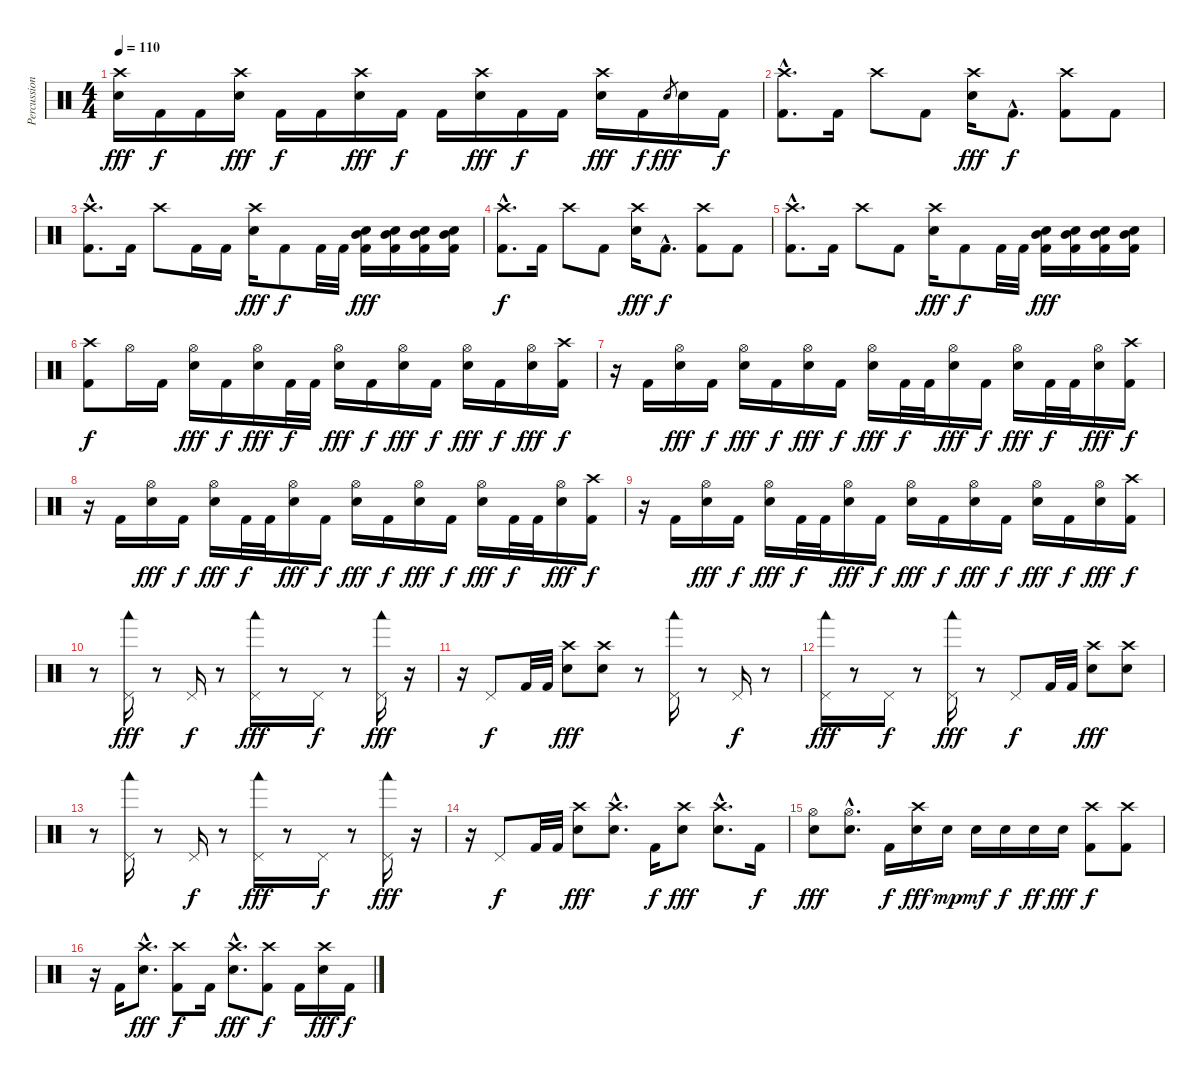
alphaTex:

\track ("Percussions" "Percussion") {instrument percussion}
\staff {score}
\articulation defaults
\ts (4 4)
\tempo 110
\clef neutral
\ks c
("Crash high (hit)" "Snare (hit) 2").16{dy fff} "Kick (hit) 2".16{dy f} "Kick (hit) 2".16 ("Crash high (hit)" "Snare (hit) 2").16{dy fff} "Kick (hit) 2".16{dy f} "Kick (hit) 2".16 ("Crash high (hit)" "Snare (hit) 2").16{dy fff} "Kick (hit) 2".16{dy f} "Kick (hit) 2".16 ("Crash high (hit)" "Snare (hit) 2").16{dy fff} "Kick (hit) 2".16{dy f} "Kick (hit) 2".16 ("Crash high (hit)" "Snare (hit) 2").16{dy fff} "Kick (hit) 2".16{dy f} "Snare (hit) 2".8{gr dy fff} "Snare (hit) 2".16 "Kick (hit) 2".16{dy f} |
("Crash high (hit)"{hac} "Kick (hit) 2"{hac}).8{d} "Kick (hit) 2".16 "Crash high (hit)".8 "Kick (hit) 2".8 ("Crash high (hit)" "Snare (hit) 2").16{dy fff} "Kick (hit) 2"{hac}.8{d dy f} ("Crash high (hit)" "Kick (hit) 2").8 "Kick (hit) 2".8 |
("Crash high (hit)"{hac} "Kick (hit) 2"{hac}).8{d} "Kick (hit) 2".16 "Crash high (hit)".8 "Kick (hit) 2".16 "Kick (hit) 2".16 ("Crash high (hit)" "Snare (hit) 2").16{dy fff} "Kick (hit) 2".8{dy f} "Kick (hit) 2".32 "Kick (hit) 2".32 ("Snare (hit) 2" "Mid Tom (hit)" "Kick (hit) 2").16{dy fff} ("Snare (hit) 2" "Mid Tom (hit)" "Kick (hit) 2").16 ("Snare (hit) 2" "Mid Tom (hit)" "Kick (hit) 2").16 ("Snare (hit) 2" "Mid Tom (hit)" "Kick (hit) 2").16 |
("Crash high (hit)"{hac} "Kick (hit) 2"{hac}).8{d dy f} "Kick (hit) 2".16 "Crash high (hit)".8 "Kick (hit) 2".8 ("Crash high (hit)" "Snare (hit) 2").16{dy fff} "Kick (hit) 2"{hac}.8{d dy f} ("Crash high (hit)" "Kick (hit) 2").8 "Kick (hit) 2".8 |
("Crash high (hit)"{hac} "Kick (hit) 2"{hac}).8{d} "Kick (hit) 2".16 "Crash high (hit)".8 "Kick (hit) 2".8 ("Crash high (hit)" "Snare (hit) 2").16{dy fff} "Kick (hit) 2".8{dy f} "Kick (hit) 2".32 "Kick (hit) 2".32 ("Snare (hit) 2" "Mid Tom (hit)" "Kick (hit) 2").16{dy fff} ("Snare (hit) 2" "Mid Tom (hit)" "Kick (hit) 2").16 ("Snare (hit) 2" "Mid Tom (hit)" "Kick (hit) 2").16 ("Snare (hit) 2" "Mid Tom (hit)" "Kick (hit) 2").16 |
("Crash high (hit)" "Kick (hit) 2").8{dy f} "Hi-Hat (open)".16 "Kick (hit) 2".16 ("Hi-Hat (open)" "Snare (hit) 2").16{dy fff} "Kick (hit) 2".16{dy f} ("Hi-Hat (open)" "Snare (hit) 2").16{dy fff} "Kick (hit) 2".32{dy f} "Kick (hit) 2".32 ("Hi-Hat (open)" "Snare (hit) 2").16{dy fff} "Kick (hit) 2".16{dy f} ("Hi-Hat (open)" "Snare (hit) 2").16{dy fff} "Kick (hit) 2".16{dy f} ("Hi-Hat (open)" "Snare (hit) 2").16{dy fff} "Kick (hit) 2".16{dy f} ("Hi-Hat (open)" "Snare (hit) 2").16{dy fff} ("Crash high (hit)" "Kick (hit) 2").16{dy f} |
r.16 "Kick (hit) 2".16 ("Hi-Hat (open)" "Snare (hit) 2").16{dy fff} "Kick (hit) 2".16{dy f} ("Hi-Hat (open)" "Snare (hit) 2").16{dy fff} "Kick (hit) 2".16{dy f} ("Hi-Hat (open)" "Snare (hit) 2").16{dy fff} "Kick (hit) 2".16{dy f} ("Hi-Hat (open)" "Snare (hit) 2").16{dy fff} "Kick (hit) 2".32{dy f} "Kick (hit) 2".32 ("Hi-Hat (open)" "Snare (hit) 2").16{dy fff} "Kick (hit) 2".16{dy f} ("Hi-Hat (open)" "Snare (hit) 2").16{dy fff} "Kick (hit) 2".32{dy f} "Kick (hit) 2".32 ("Hi-Hat (open)" "Snare (hit) 2").16{dy fff} ("Crash high (hit)" "Kick (hit) 2").16{dy f} |
r.16 "Kick (hit) 2".16 ("Hi-Hat (open)" "Snare (hit) 2").16{dy fff} "Kick (hit) 2".16{dy f} ("Hi-Hat (open)" "Snare (hit) 2").16{dy fff} "Kick (hit) 2".32{dy f} "Kick (hit) 2".32 ("Hi-Hat (open)" "Snare (hit) 2").16{dy fff} "Kick (hit) 2".16{dy f} ("Hi-Hat (open)" "Snare (hit) 2").16{dy fff} "Kick (hit) 2".16{dy f} ("Hi-Hat (open)" "Snare (hit) 2").16{dy fff} "Kick (hit) 2".16{dy f} ("Hi-Hat (open)" "Snare (hit) 2").16{dy fff} "Kick (hit) 2".32{dy f} "Kick (hit) 2".32 ("Hi-Hat (open)" "Snare (hit) 2").16{dy fff} ("Crash high (hit)" "Kick (hit) 2").16{dy f} |
r.16 "Kick (hit) 2".16 ("Hi-Hat (open)" "Snare (hit) 2").16{dy fff} "Kick (hit) 2".16{dy f} ("Hi-Hat (open)" "Snare (hit) 2").16{dy fff} "Kick (hit) 2".32{dy f} "Kick (hit) 2".32 ("Hi-Hat (open)" "Snare (hit) 2").16{dy fff} "Kick (hit) 2".16{dy f} ("Hi-Hat (open)" "Snare (hit) 2").16{dy fff} "Kick (hit) 2".16{dy f} ("Hi-Hat (open)" "Snare (hit) 2").16{dy fff} "Kick (hit) 2".16{dy f} ("Hi-Hat (open)" "Snare (hit) 2").16{dy fff} "Kick (hit) 2".16{dy f} ("Hi-Hat (open)" "Snare (hit) 2").16{dy fff} ("Crash high (hit)" "Kick (hit) 2").16{dy f} |
r.8 ("Pedal Hi-Hat (hit)" "Woodblock low (hit)").16{dy fff} r.8 "Pedal Hi-Hat (hit)".16{dy f} r.8 ("Pedal Hi-Hat (hit)" "Woodblock low (hit)").16{dy fff} r.8 "Pedal Hi-Hat (hit)".16{dy f} r.8 ("Pedal Hi-Hat (hit)" "Woodblock low (hit)").16{dy fff} r.16 |
r.16 "Pedal Hi-Hat (hit)".8{dy f} "Kick (hit) 2".32 "Kick (hit) 2".32 ("Crash high (hit)" "Snare (hit) 2").8{dy fff} ("Crash high (hit)" "Snare (hit) 2").8 r.8 ("Pedal Hi-Hat (hit)" "Woodblock low (hit)").16 r.8 "Pedal Hi-Hat (hit)".16{dy f} r.8 |
("Pedal Hi-Hat (hit)" "Woodblock low (hit)").16{dy fff} r.8 "Pedal Hi-Hat (hit)".16{dy f} r.8 ("Pedal Hi-Hat (hit)" "Woodblock low (hit)").16{dy fff} r.8 "Pedal Hi-Hat (hit)".8{dy f} "Kick (hit) 2".32 "Kick (hit) 2".32 ("Crash high (hit)" "Snare (hit) 2").8{dy fff} ("Crash high (hit)" "Snare (hit) 2").8 |
r.8 ("Pedal Hi-Hat (hit)" "Woodblock low (hit)").16 r.8 "Pedal Hi-Hat (hit)".16{dy f} r.8 ("Pedal Hi-Hat (hit)" "Woodblock low (hit)").16{dy fff} r.8 "Pedal Hi-Hat (hit)".16{dy f} r.8 ("Pedal Hi-Hat (hit)" "Woodblock low (hit)").16{dy fff} r.16 |
r.16 "Pedal Hi-Hat (hit)".8{dy f} "Kick (hit) 2".32 "Kick (hit) 2".32 ("Crash high (hit)" "Snare (hit) 2").8{dy fff} ("Crash high (hit)"{hac} "Snare (hit) 2"{hac}).8{d} "Kick (hit) 2".16{dy f} ("Crash high (hit)" "Snare (hit) 2").8{dy fff} ("Crash high (hit)"{hac} "Snare (hit) 2"{hac}).8{d} "Kick (hit) 2".16{dy f} |
("Hi-Hat (open)" "Snare (hit) 2").8{dy fff} ("Hi-Hat (open)"{hac} "Snare (hit) 2"{hac}).8{d} "Kick (hit) 2".16{dy f} ("Crash high (hit)" "Snare (hit) 2").16{dy fff} "Snare (hit) 2".16{dy mp} "Snare (hit) 2".16{dy mf} "Snare (hit) 2".16{dy f} "Snare (hit) 2".16{dy ff} "Snare (hit) 2".16{dy fff} ("Crash high (hit)" "Kick (hit) 2").8{dy f} ("Crash high (hit)" "Kick (hit) 2").8 |
r.16 "Kick (hit) 2".16 ("Crash high (hit)"{hac} "Snare (hit) 2"{hac}).8{d dy fff} ("Crash high (hit)" "Kick (hit) 2").8{dy f} "Kick (hit) 2".16 ("Crash high (hit)"{hac} "Snare (hit) 2"{hac}).8{d dy fff} ("Crash high (hit)" "Kick (hit) 2").8{dy f} "Kick (hit) 2".16 ("Crash high (hit)" "Snare (hit) 2").16{dy fff} "Kick (hit) 2".16{dy f}
